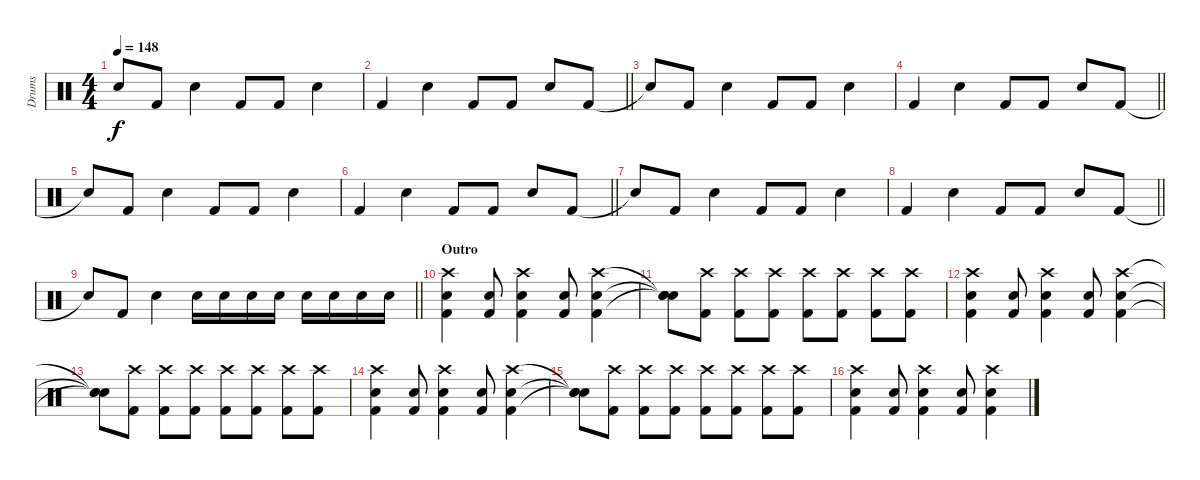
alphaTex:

\track ("Drums" "Drums") {instrument percussion}
\staff {score}
\articulation defaults
\ts (4 4)
\tempo 148
\clef neutral
\ks c "Snare (hit)"{t}.8{dy f} "Kick (hit) 2".8 "Electric Snare (hit)".4 "Kick (hit) 2".8 "Kick (hit) 2".8 "Electric Snare (hit)".4
|
\barLineRight lightlight "Kick (hit) 2".4 "Electric Snare (hit)".4 "Kick (hit) 2".8 "Kick (hit) 2".8 "Electric Snare (hit)".8 "Kick (hit) 2".8
|
"Snare (hit)"{t}.8 "Kick (hit) 2".8 "Electric Snare (hit)".4 "Kick (hit) 2".8 "Kick (hit) 2".8 "Electric Snare (hit)".4 |
\barLineRight lightlight "Kick (hit) 2".4 "Electric Snare (hit)".4 "Kick (hit) 2".8 "Kick (hit) 2".8 "Electric Snare (hit)".8 "Kick (hit) 2".8
|
"Snare (hit)"{t}.8 "Kick (hit) 2".8 "Electric Snare (hit)".4 "Kick (hit) 2".8 "Kick (hit) 2".8 "Electric Snare (hit)".4 |
\barLineRight lightlight "Kick (hit) 2".4 "Electric Snare (hit)".4 "Kick (hit) 2".8 "Kick (hit) 2".8 "Electric Snare (hit)".8 "Kick (hit) 2".8
|
"Snare (hit)"{t}.8 "Kick (hit) 2".8 "Electric Snare (hit)".4 "Kick (hit) 2".8 "Kick (hit) 2".8 "Electric Snare (hit)".4 |
\barLineRight lightlight "Kick (hit) 2".4 "Electric Snare (hit)".4 "Kick (hit) 2".8 "Kick (hit) 2".8 "Electric Snare (hit)".8 "Kick (hit) 2".8
|
\barLineRight lightlight "Snare (hit)"{t}.8 "Kick (hit) 2".8 "Electric Snare (hit)".4 "Electric Snare (hit)".16 "Electric Snare (hit)".16 "Electric Snare (hit)".16 "Electric Snare (hit)".16 "Electric Snare (hit)".16 "Electric Snare (hit)".16 "Electric Snare (hit)".16 "Electric Snare (hit)".16
|
\section ("" "Outro")
("Crash high (hit)" "Electric Snare (hit)" "Kick (hit) 2").4 ("Electric Snare (hit)" "Kick (hit) 2").8 ("Crash high (hit)" "Electric Snare (hit)" "Kick (hit) 2").4 ("Electric Snare (hit)" "Kick (hit) 2").8 ("Crash high (hit)" "Electric Snare (hit)" "Kick (hit) 2").4 |
("Snare (hit)"{t} "Snare (hit)"{t} "Snare (hit)"{t}).8 ("Crash high (hit)" "Kick (hit) 2").8 ("Crash high (hit)" "Kick (hit) 2").8 ("Crash high (hit)" "Kick (hit) 2").8 ("Crash high (hit)" "Kick (hit) 2").8 ("Crash high (hit)" "Kick (hit) 2").8 ("Crash high (hit)" "Kick (hit) 2").8 ("Crash high (hit)" "Kick (hit) 2").8 |
("Crash high (hit)" "Electric Snare (hit)" "Kick (hit) 2").4 ("Electric Snare (hit)" "Kick (hit) 2").8 ("Crash high (hit)" "Electric Snare (hit)" "Kick (hit) 2").4 ("Electric Snare (hit)" "Kick (hit) 2").8 ("Crash high (hit)" "Electric Snare (hit)" "Kick (hit) 2").4 |
("Snare (hit)"{t} "Snare (hit)"{t} "Snare (hit)"{t}).8 ("Crash high (hit)" "Kick (hit) 2").8 ("Crash high (hit)" "Kick (hit) 2").8 ("Crash high (hit)" "Kick (hit) 2").8 ("Crash high (hit)" "Kick (hit) 2").8 ("Crash high (hit)" "Kick (hit) 2").8 ("Crash high (hit)" "Kick (hit) 2").8 ("Crash high (hit)" "Kick (hit) 2").8 |
("Crash high (hit)" "Electric Snare (hit)" "Kick (hit) 2").4 ("Electric Snare (hit)" "Kick (hit) 2").8 ("Crash high (hit)" "Electric Snare (hit)" "Kick (hit) 2").4 ("Electric Snare (hit)" "Kick (hit) 2").8 ("Crash high (hit)" "Electric Snare (hit)" "Kick (hit) 2").4 |
("Snare (hit)"{t} "Snare (hit)"{t} "Snare (hit)"{t}).8 ("Crash high (hit)" "Kick (hit) 2").8 ("Crash high (hit)" "Kick (hit) 2").8 ("Crash high (hit)" "Kick (hit) 2").8 ("Crash high (hit)" "Kick (hit) 2").8 ("Crash high (hit)" "Kick (hit) 2").8 ("Crash high (hit)" "Kick (hit) 2").8 ("Crash high (hit)" "Kick (hit) 2").8 |
("Crash high (hit)" "Electric Snare (hit)" "Kick (hit) 2").4 ("Electric Snare (hit)" "Kick (hit) 2").8 ("Crash high (hit)" "Electric Snare (hit)" "Kick (hit) 2").4 ("Electric Snare (hit)" "Kick (hit) 2").8 ("Crash high (hit)" "Electric Snare (hit)" "Kick (hit) 2").4
